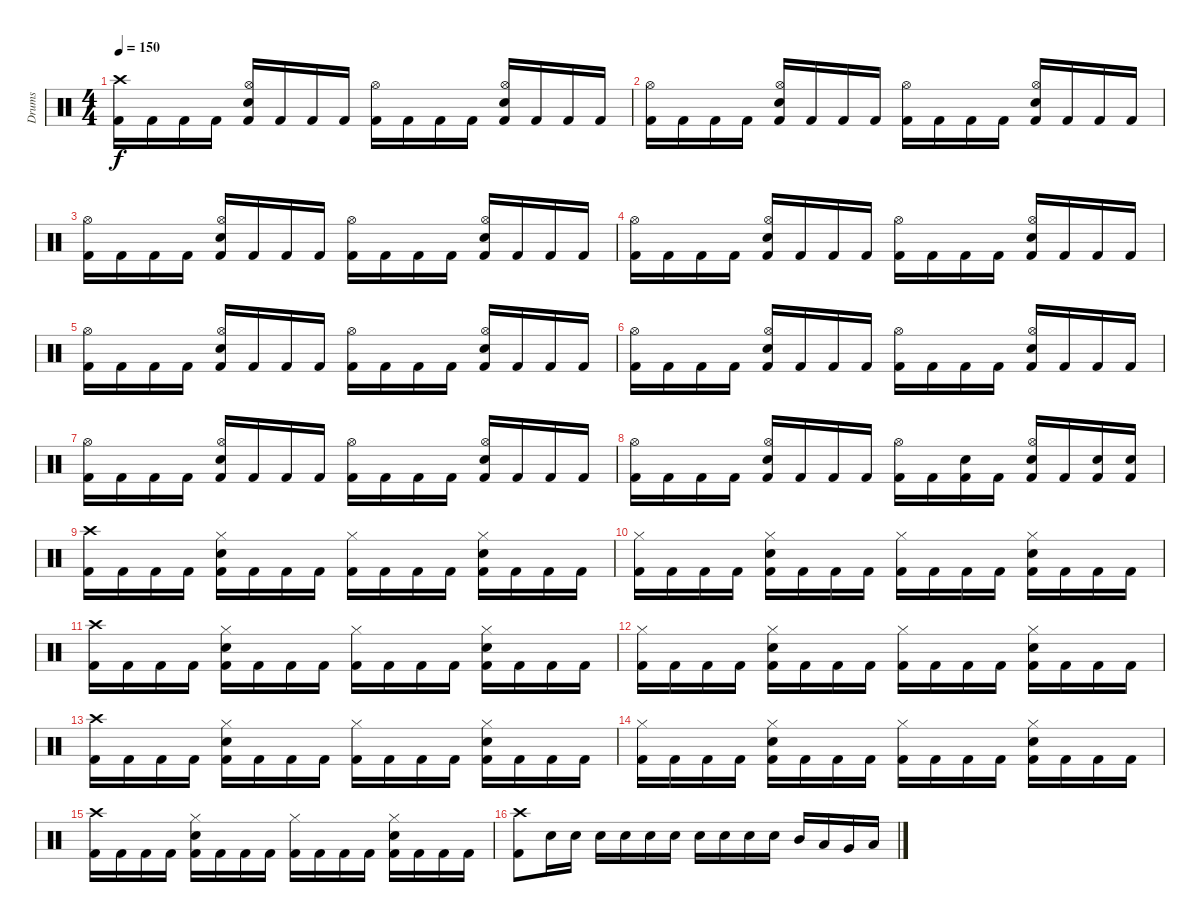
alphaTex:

\track ("Drums" "Drums") {instrument percussion}
\staff {score}
\articulation defaults
\ts (4 4)
\tempo 150
\clef neutral
\ks c
("Crash high (hit)" "Kick (hit) 2").16{dy f} "Kick (hit) 2".16 "Kick (hit) 2".16 "Kick (hit) 2".16 ("Hi-Hat (open)" "Electric Snare (hit)" "Kick (hit) 2").16 "Kick (hit) 2".16 "Kick (hit) 2".16 "Kick (hit) 2".16 ("Hi-Hat (open)" "Kick (hit) 2").16 "Kick (hit) 2".16 "Kick (hit) 2".16 "Kick (hit) 2".16 ("Hi-Hat (open)" "Electric Snare (hit)" "Kick (hit) 2").16 "Kick (hit) 2".16 "Kick (hit) 2".16 "Kick (hit) 2".16 |
("Hi-Hat (open)" "Kick (hit) 2").16 "Kick (hit) 2".16 "Kick (hit) 2".16 "Kick (hit) 2".16 ("Hi-Hat (open)" "Electric Snare (hit)" "Kick (hit) 2").16 "Kick (hit) 2".16 "Kick (hit) 2".16 "Kick (hit) 2".16 ("Hi-Hat (open)" "Kick (hit) 2").16 "Kick (hit) 2".16 "Kick (hit) 2".16 "Kick (hit) 2".16 ("Hi-Hat (open)" "Electric Snare (hit)" "Kick (hit) 2").16 "Kick (hit) 2".16 "Kick (hit) 2".16 "Kick (hit) 2".16 |
("Hi-Hat (open)" "Kick (hit) 2").16 "Kick (hit) 2".16 "Kick (hit) 2".16 "Kick (hit) 2".16 ("Hi-Hat (open)" "Electric Snare (hit)" "Kick (hit) 2").16 "Kick (hit) 2".16 "Kick (hit) 2".16 "Kick (hit) 2".16 ("Hi-Hat (open)" "Kick (hit) 2").16 "Kick (hit) 2".16 "Kick (hit) 2".16 "Kick (hit) 2".16 ("Hi-Hat (open)" "Electric Snare (hit)" "Kick (hit) 2").16 "Kick (hit) 2".16 "Kick (hit) 2".16 "Kick (hit) 2".16 |
("Hi-Hat (open)" "Kick (hit) 2").16 "Kick (hit) 2".16 "Kick (hit) 2".16 "Kick (hit) 2".16 ("Hi-Hat (open)" "Electric Snare (hit)" "Kick (hit) 2").16 "Kick (hit) 2".16 "Kick (hit) 2".16 "Kick (hit) 2".16 ("Hi-Hat (open)" "Kick (hit) 2").16 "Kick (hit) 2".16 "Kick (hit) 2".16 "Kick (hit) 2".16 ("Hi-Hat (open)" "Electric Snare (hit)" "Kick (hit) 2").16 "Kick (hit) 2".16 "Kick (hit) 2".16 "Kick (hit) 2".16 |
("Hi-Hat (open)" "Kick (hit) 2").16 "Kick (hit) 2".16 "Kick (hit) 2".16 "Kick (hit) 2".16 ("Hi-Hat (open)" "Electric Snare (hit)" "Kick (hit) 2").16 "Kick (hit) 2".16 "Kick (hit) 2".16 "Kick (hit) 2".16 ("Hi-Hat (open)" "Kick (hit) 2").16 "Kick (hit) 2".16 "Kick (hit) 2".16 "Kick (hit) 2".16 ("Hi-Hat (open)" "Electric Snare (hit)" "Kick (hit) 2").16 "Kick (hit) 2".16 "Kick (hit) 2".16 "Kick (hit) 2".16 |
("Hi-Hat (open)" "Kick (hit) 2").16 "Kick (hit) 2".16 "Kick (hit) 2".16 "Kick (hit) 2".16 ("Hi-Hat (open)" "Electric Snare (hit)" "Kick (hit) 2").16 "Kick (hit) 2".16 "Kick (hit) 2".16 "Kick (hit) 2".16 ("Hi-Hat (open)" "Kick (hit) 2").16 "Kick (hit) 2".16 "Kick (hit) 2".16 "Kick (hit) 2".16 ("Hi-Hat (open)" "Electric Snare (hit)" "Kick (hit) 2").16 "Kick (hit) 2".16 "Kick (hit) 2".16 "Kick (hit) 2".16 |
("Hi-Hat (open)" "Kick (hit) 2").16 "Kick (hit) 2".16 "Kick (hit) 2".16 "Kick (hit) 2".16 ("Hi-Hat (open)" "Electric Snare (hit)" "Kick (hit) 2").16 "Kick (hit) 2".16 "Kick (hit) 2".16 "Kick (hit) 2".16 ("Hi-Hat (open)" "Kick (hit) 2").16 "Kick (hit) 2".16 "Kick (hit) 2".16 "Kick (hit) 2".16 ("Hi-Hat (open)" "Electric Snare (hit)" "Kick (hit) 2").16 "Kick (hit) 2".16 "Kick (hit) 2".16 "Kick (hit) 2".16 |
("Hi-Hat (open)" "Kick (hit) 2").16 "Kick (hit) 2".16 "Kick (hit) 2".16 "Kick (hit) 2".16 ("Hi-Hat (open)" "Electric Snare (hit)" "Kick (hit) 2").16 "Kick (hit) 2".16 "Kick (hit) 2".16 "Kick (hit) 2".16 ("Hi-Hat (open)" "Kick (hit) 2").16 "Kick (hit) 2".16 ("Electric Snare (hit)" "Kick (hit) 2").16 "Kick (hit) 2".16 ("Hi-Hat (open)" "Electric Snare (hit)" "Kick (hit) 2").16 "Kick (hit) 2".16 ("Electric Snare (hit)" "Kick (hit) 2").16 ("Electric Snare (hit)" "Kick (hit) 2").16 |
("Crash high (hit)" "Kick (hit) 2").16 "Kick (hit) 2".16 "Kick (hit) 2".16 "Kick (hit) 2".16 ("Hi-Hat (closed)" "Electric Snare (hit)" "Kick (hit) 2").16 "Kick (hit) 2".16 "Kick (hit) 2".16 "Kick (hit) 2".16 ("Hi-Hat (closed)" "Kick (hit) 2").16 "Kick (hit) 2".16 "Kick (hit) 2".16 "Kick (hit) 2".16 ("Hi-Hat (closed)" "Electric Snare (hit)" "Kick (hit) 2").16 "Kick (hit) 2".16 "Kick (hit) 2".16 "Kick (hit) 2".16 |
("Hi-Hat (closed)" "Kick (hit) 2").16 "Kick (hit) 2".16 "Kick (hit) 2".16 "Kick (hit) 2".16 ("Hi-Hat (closed)" "Electric Snare (hit)" "Kick (hit) 2").16 "Kick (hit) 2".16 "Kick (hit) 2".16 "Kick (hit) 2".16 ("Hi-Hat (closed)" "Kick (hit) 2").16 "Kick (hit) 2".16 "Kick (hit) 2".16 "Kick (hit) 2".16 ("Hi-Hat (closed)" "Electric Snare (hit)" "Kick (hit) 2").16 "Kick (hit) 2".16 "Kick (hit) 2".16 "Kick (hit) 2".16 |
("Crash high (hit)" "Kick (hit) 2").16 "Kick (hit) 2".16 "Kick (hit) 2".16 "Kick (hit) 2".16 ("Hi-Hat (closed)" "Electric Snare (hit)" "Kick (hit) 2").16 "Kick (hit) 2".16 "Kick (hit) 2".16 "Kick (hit) 2".16 ("Hi-Hat (closed)" "Kick (hit) 2").16 "Kick (hit) 2".16 "Kick (hit) 2".16 "Kick (hit) 2".16 ("Hi-Hat (closed)" "Electric Snare (hit)" "Kick (hit) 2").16 "Kick (hit) 2".16 "Kick (hit) 2".16 "Kick (hit) 2".16 |
("Hi-Hat (closed)" "Kick (hit) 2").16 "Kick (hit) 2".16 "Kick (hit) 2".16 "Kick (hit) 2".16 ("Hi-Hat (closed)" "Electric Snare (hit)" "Kick (hit) 2").16 "Kick (hit) 2".16 "Kick (hit) 2".16 "Kick (hit) 2".16 ("Hi-Hat (closed)" "Kick (hit) 2").16 "Kick (hit) 2".16 "Kick (hit) 2".16 "Kick (hit) 2".16 ("Hi-Hat (closed)" "Electric Snare (hit)" "Kick (hit) 2").16 "Kick (hit) 2".16 "Kick (hit) 2".16 "Kick (hit) 2".16 |
("Crash high (hit)" "Kick (hit) 2").16 "Kick (hit) 2".16 "Kick (hit) 2".16 "Kick (hit) 2".16 ("Hi-Hat (closed)" "Electric Snare (hit)" "Kick (hit) 2").16 "Kick (hit) 2".16 "Kick (hit) 2".16 "Kick (hit) 2".16 ("Hi-Hat (closed)" "Kick (hit) 2").16 "Kick (hit) 2".16 "Kick (hit) 2".16 "Kick (hit) 2".16 ("Hi-Hat (closed)" "Electric Snare (hit)" "Kick (hit) 2").16 "Kick (hit) 2".16 "Kick (hit) 2".16 "Kick (hit) 2".16 |
("Hi-Hat (closed)" "Kick (hit) 2").16 "Kick (hit) 2".16 "Kick (hit) 2".16 "Kick (hit) 2".16 ("Hi-Hat (closed)" "Electric Snare (hit)" "Kick (hit) 2").16 "Kick (hit) 2".16 "Kick (hit) 2".16 "Kick (hit) 2".16 ("Hi-Hat (closed)" "Kick (hit) 2").16 "Kick (hit) 2".16 "Kick (hit) 2".16 "Kick (hit) 2".16 ("Hi-Hat (closed)" "Electric Snare (hit)" "Kick (hit) 2").16 "Kick (hit) 2".16 "Kick (hit) 2".16 "Kick (hit) 2".16 |
("Crash high (hit)" "Kick (hit) 2").16 "Kick (hit) 2".16 "Kick (hit) 2".16 "Kick (hit) 2".16 ("Hi-Hat (closed)" "Electric Snare (hit)" "Kick (hit) 2").16 "Kick (hit) 2".16 "Kick (hit) 2".16 "Kick (hit) 2".16 ("Hi-Hat (closed)" "Kick (hit) 2").16 "Kick (hit) 2".16 "Kick (hit) 2".16 "Kick (hit) 2".16 ("Hi-Hat (closed)" "Electric Snare (hit)" "Kick (hit) 2").16 "Kick (hit) 2".16 "Kick (hit) 2".16 "Kick (hit) 2".16 |
("Crash high (hit)" "Kick (hit) 2").8 "Electric Snare (hit)".16 "Electric Snare (hit)".16 "Electric Snare (hit)".16 "Electric Snare (hit)".16 "Electric Snare (hit)".16 "Electric Snare (hit)".16 "Electric Snare (hit)".16 "Electric Snare (hit)".16 "Electric Snare (hit)".16 "Electric Snare (hit)".16 "Mid Tom (hit)".16 "Low Tom (hit)".16 "Very Low Tom (hit)".16 "Low Floor Tom (hit)".16
